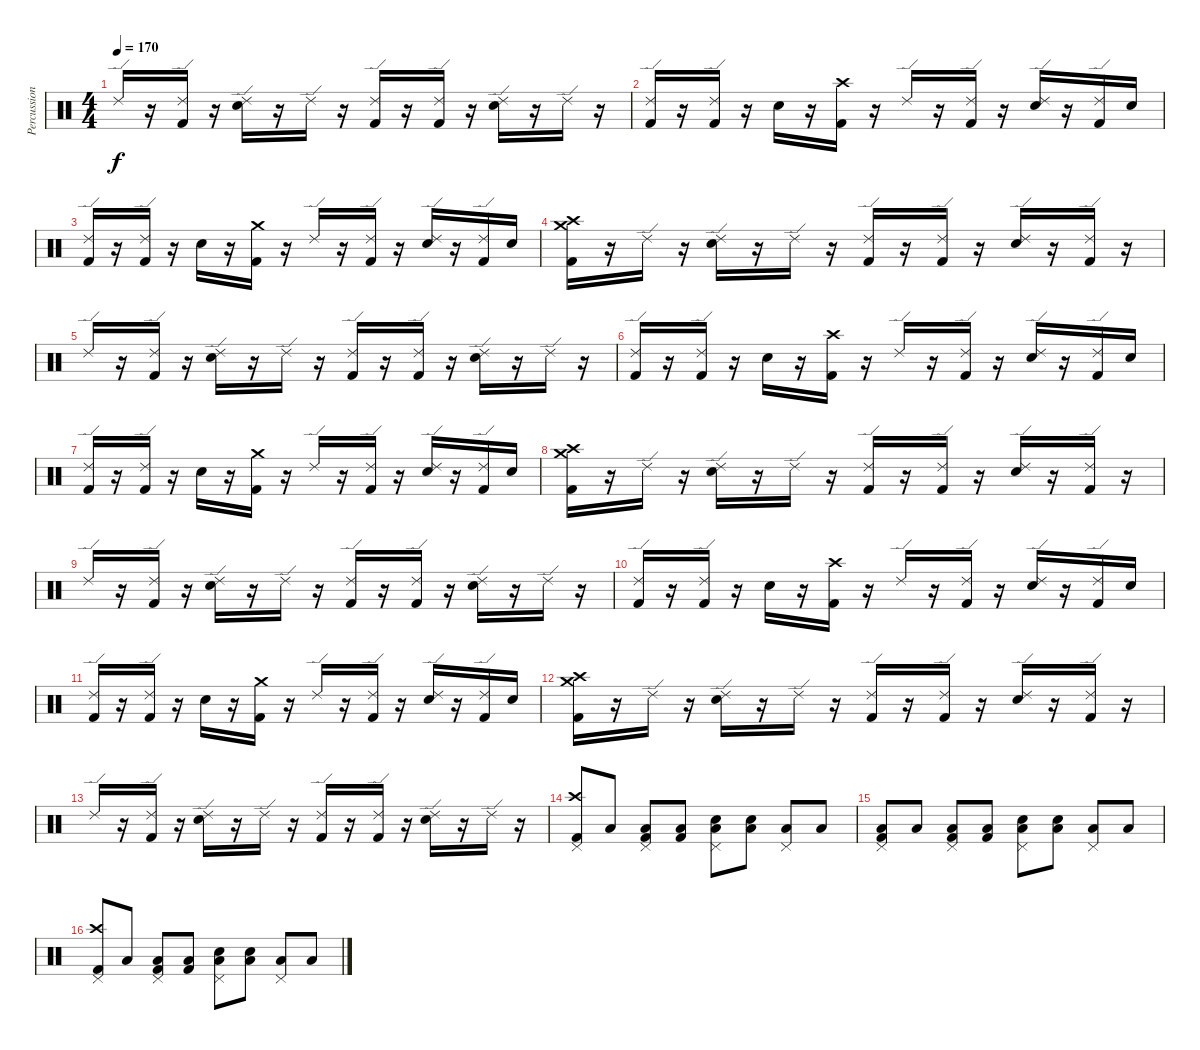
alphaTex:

\track ("Percussion" "Percussion") {instrument percussion}
\staff {score}
\articulation defaults
\ts (4 4)
\tempo 170
\clef neutral
\ks c "Ride (edge) 2".16{dy f}
r.16 ("Ride (edge) 2" "Kick (hit) 2").16 r.16 ("Ride (edge) 2" "Snare (hit) 2").16 r.16 "Ride (edge) 2".16 r.16 ("Ride (edge) 2" "Kick (hit) 2").16 r.16 ("Ride (edge) 2" "Kick (hit) 2").16 r.16 ("Ride (edge) 2" "Snare (hit) 2").16 r.16 "Ride (edge) 2".16 r.16 |
("Ride (edge) 2" "Kick (hit) 2").16 r.16 ("Ride (edge) 2" "Kick (hit) 2").16 r.16 "Snare (hit) 2".16 r.16 ("Crash high (hit)" "Kick (hit) 2").16 r.16 "Ride (edge) 2".16 r.16 ("Ride (edge) 2" "Kick (hit) 2").16 r.16 ("Ride (edge) 2" "Snare (hit) 2").16 r.16 ("Ride (edge) 2" "Kick (hit) 2").16 "Snare (hit) 2".16 |
("Ride (edge) 2" "Kick (hit) 2").16 r.16 ("Ride (edge) 2" "Kick (hit) 2").16 r.16 "Snare (hit) 2".16 r.16 ("Crash medium (hit)" "Kick (hit) 2").16 r.16 "Ride (edge) 2".16 r.16 ("Ride (edge) 2" "Kick (hit) 2").16 r.16 ("Ride (edge) 2" "Snare (hit) 2").16 r.16 ("Ride (edge) 2" "Kick (hit) 2").16 "Snare (hit) 2".16 |
("Crash medium (hit)" "Crash high (hit)" "Kick (hit) 2").16 r.16 "Ride (edge) 2".16 r.16 ("Ride (edge) 2" "Snare (hit) 2").16 r.16 "Ride (edge) 2".16 r.16 ("Ride (edge) 2" "Kick (hit) 2").16 r.16 ("Ride (edge) 2" "Kick (hit) 2").16 r.16 ("Ride (edge) 2" "Snare (hit) 2").16 r.16 ("Ride (edge) 2" "Kick (hit) 2").16 r.16 |
"Ride (edge) 2".16 r.16 ("Ride (edge) 2" "Kick (hit) 2").16 r.16 ("Ride (edge) 2" "Snare (hit) 2").16 r.16 "Ride (edge) 2".16 r.16 ("Ride (edge) 2" "Kick (hit) 2").16 r.16 ("Ride (edge) 2" "Kick (hit) 2").16 r.16 ("Ride (edge) 2" "Snare (hit) 2").16 r.16 "Ride (edge) 2".16 r.16 |
("Ride (edge) 2" "Kick (hit) 2").16 r.16 ("Ride (edge) 2" "Kick (hit) 2").16 r.16 "Snare (hit) 2".16 r.16 ("Crash high (hit)" "Kick (hit) 2").16 r.16 "Ride (edge) 2".16 r.16 ("Ride (edge) 2" "Kick (hit) 2").16 r.16 ("Ride (edge) 2" "Snare (hit) 2").16 r.16 ("Ride (edge) 2" "Kick (hit) 2").16 "Snare (hit) 2".16 |
("Ride (edge) 2" "Kick (hit) 2").16 r.16 ("Ride (edge) 2" "Kick (hit) 2").16 r.16 "Snare (hit) 2".16 r.16 ("Crash medium (hit)" "Kick (hit) 2").16 r.16 "Ride (edge) 2".16 r.16 ("Ride (edge) 2" "Kick (hit) 2").16 r.16 ("Ride (edge) 2" "Snare (hit) 2").16 r.16 ("Ride (edge) 2" "Kick (hit) 2").16 "Snare (hit) 2".16 |
("Crash medium (hit)" "Crash high (hit)" "Kick (hit) 2").16 r.16 "Ride (edge) 2".16 r.16 ("Ride (edge) 2" "Snare (hit) 2").16 r.16 "Ride (edge) 2".16 r.16 ("Ride (edge) 2" "Kick (hit) 2").16 r.16 ("Ride (edge) 2" "Kick (hit) 2").16 r.16 ("Ride (edge) 2" "Snare (hit) 2").16 r.16 ("Ride (edge) 2" "Kick (hit) 2").16 r.16 |
"Ride (edge) 2".16 r.16 ("Ride (edge) 2" "Kick (hit) 2").16 r.16 ("Ride (edge) 2" "Snare (hit) 2").16 r.16 "Ride (edge) 2".16 r.16 ("Ride (edge) 2" "Kick (hit) 2").16 r.16 ("Ride (edge) 2" "Kick (hit) 2").16 r.16 ("Ride (edge) 2" "Snare (hit) 2").16 r.16 "Ride (edge) 2".16 r.16 |
("Ride (edge) 2" "Kick (hit) 2").16 r.16 ("Ride (edge) 2" "Kick (hit) 2").16 r.16 "Snare (hit) 2".16 r.16 ("Crash high (hit)" "Kick (hit) 2").16 r.16 "Ride (edge) 2".16 r.16 ("Ride (edge) 2" "Kick (hit) 2").16 r.16 ("Ride (edge) 2" "Snare (hit) 2").16 r.16 ("Ride (edge) 2" "Kick (hit) 2").16 "Snare (hit) 2".16 |
("Ride (edge) 2" "Kick (hit) 2").16 r.16 ("Ride (edge) 2" "Kick (hit) 2").16 r.16 "Snare (hit) 2".16 r.16 ("Crash medium (hit)" "Kick (hit) 2").16 r.16 "Ride (edge) 2".16 r.16 ("Ride (edge) 2" "Kick (hit) 2").16 r.16 ("Ride (edge) 2" "Snare (hit) 2").16 r.16 ("Ride (edge) 2" "Kick (hit) 2").16 "Snare (hit) 2".16 |
("Crash medium (hit)" "Crash high (hit)" "Kick (hit) 2").16 r.16 "Ride (edge) 2".16 r.16 ("Ride (edge) 2" "Snare (hit) 2").16 r.16 "Ride (edge) 2".16 r.16 ("Ride (edge) 2" "Kick (hit) 2").16 r.16 ("Ride (edge) 2" "Kick (hit) 2").16 r.16 ("Ride (edge) 2" "Snare (hit) 2").16 r.16 ("Ride (edge) 2" "Kick (hit) 2").16 r.16 |
"Ride (edge) 2".16 r.16 ("Ride (edge) 2" "Kick (hit) 2").16 r.16 ("Ride (edge) 2" "Snare (hit) 2").16 r.16 "Ride (edge) 2".16 r.16 ("Ride (edge) 2" "Kick (hit) 2").16 r.16 ("Ride (edge) 2" "Kick (hit) 2").16 r.16 ("Ride (edge) 2" "Snare (hit) 2").16 r.16 "Ride (edge) 2".16 r.16 |
("Pedal Hi-Hat (hit)" "Crash high (hit)" "Kick (hit) 2").8 "Low Tom (hit)".8 ("Pedal Hi-Hat (hit)" "Low Tom (hit)" "Kick (hit) 2").8 ("Low Tom (hit)" "Kick (hit) 2").8 ("Pedal Hi-Hat (hit)" "Low Tom (hit)" "Snare (hit) 2").8 ("Low Tom (hit)" "Snare (hit) 2").8 ("Pedal Hi-Hat (hit)" "Low Tom (hit)").8 "Low Tom (hit)".8 |
("Pedal Hi-Hat (hit)" "Low Tom (hit)" "Kick (hit) 2").8 "Low Tom (hit)".8 ("Pedal Hi-Hat (hit)" "Low Tom (hit)" "Kick (hit) 2").8 ("Low Tom (hit)" "Kick (hit) 2").8 ("Pedal Hi-Hat (hit)" "Low Tom (hit)" "Snare (hit) 2").8 ("Low Tom (hit)" "Snare (hit) 2").8 ("Pedal Hi-Hat (hit)" "Low Tom (hit)").8 "Low Tom (hit)".8 |
("Pedal Hi-Hat (hit)" "Crash high (hit)" "Kick (hit) 2").8 "Low Tom (hit)".8 ("Pedal Hi-Hat (hit)" "Low Tom (hit)" "Kick (hit) 2").8 ("Low Tom (hit)" "Kick (hit) 2").8 ("Pedal Hi-Hat (hit)" "Low Tom (hit)" "Snare (hit) 2").8 ("Low Tom (hit)" "Snare (hit) 2").8 ("Pedal Hi-Hat (hit)" "Low Tom (hit)").8 "Low Tom (hit)".8
